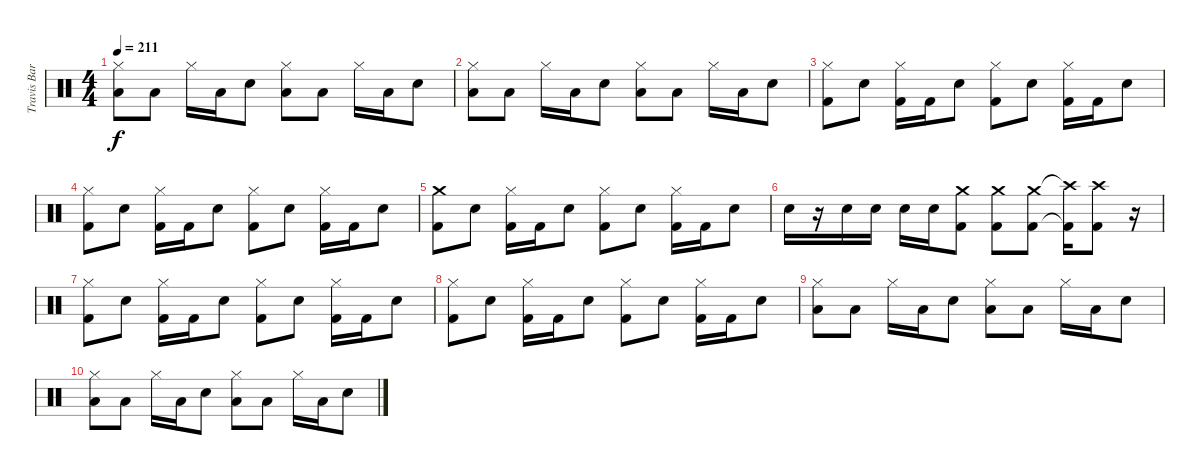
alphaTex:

\track ("Travis Barker (Drums)" "Travis Bar") {instrument percussion}
\staff {score}
\articulation defaults
\ts (4 4)
\tempo 211
\clef neutral
\ks c
("Low Floor Tom (hit)" "Hi-Hat (closed)").8{dy f} "Low Floor Tom (hit)".8 "Hi-Hat (closed)".16 "Low Floor Tom (hit)".16 "Electric Snare (hit)".8 ("Low Floor Tom (hit)" "Hi-Hat (closed)").8 "Low Floor Tom (hit)".8 "Hi-Hat (closed)".16 "Low Floor Tom (hit)".16 "Electric Snare (hit)".8 |
("Low Floor Tom (hit)" "Hi-Hat (closed)").8 "Low Floor Tom (hit)".8 "Hi-Hat (closed)".16 "Low Floor Tom (hit)".16 "Electric Snare (hit)".8 ("Low Floor Tom (hit)" "Hi-Hat (closed)").8 "Low Floor Tom (hit)".8 "Hi-Hat (closed)".16 "Low Floor Tom (hit)".16 "Electric Snare (hit)".8 |
("Kick (hit) 2" "Hi-Hat (closed)").8 "Electric Snare (hit)".8 ("Kick (hit) 2" "Hi-Hat (closed)").16 "Kick (hit) 2".16 "Electric Snare (hit)".8 ("Kick (hit) 2" "Hi-Hat (closed)").8 "Electric Snare (hit)".8 ("Kick (hit) 2" "Hi-Hat (closed)").16 "Kick (hit) 2".16 "Electric Snare (hit)".8 |
("Kick (hit) 2" "Hi-Hat (closed)").8 "Electric Snare (hit)".8 ("Kick (hit) 2" "Hi-Hat (closed)").16 "Kick (hit) 2".16 "Electric Snare (hit)".8 ("Kick (hit) 2" "Hi-Hat (closed)").8 "Electric Snare (hit)".8 ("Kick (hit) 2" "Hi-Hat (closed)").16 "Kick (hit) 2".16 "Electric Snare (hit)".8 |
("Kick (hit) 2" "Crash medium (hit)").8 "Electric Snare (hit)".8 ("Kick (hit) 2" "Hi-Hat (closed)").16 "Kick (hit) 2".16 "Electric Snare (hit)".8 ("Kick (hit) 2" "Hi-Hat (closed)").8 "Electric Snare (hit)".8 ("Kick (hit) 2" "Hi-Hat (closed)").16 "Kick (hit) 2".16 "Electric Snare (hit)".8 |
"Electric Snare (hit)".16 r.16 "Electric Snare (hit)".16 "Electric Snare (hit)".16 "Electric Snare (hit)".16 "Electric Snare (hit)".16 ("Crash medium (hit)" "Kick (hit) 2").8 ("Crash medium (hit)" "Kick (hit) 2").8 ("Crash medium (hit)" "Kick (hit) 2").8 ("Crash high (hit)"{t} "Kick (hit) 2"{t}).16 ("Crash high (hit)" "Kick (hit) 2").8 r.16 |
("Kick (hit) 2" "Hi-Hat (closed)").8 "Electric Snare (hit)".8 ("Kick (hit) 2" "Hi-Hat (closed)").16 "Kick (hit) 2".16 "Electric Snare (hit)".8 ("Kick (hit) 2" "Hi-Hat (closed)").8 "Electric Snare (hit)".8 ("Kick (hit) 2" "Hi-Hat (closed)").16 "Kick (hit) 2".16 "Electric Snare (hit)".8 |
("Kick (hit) 2" "Hi-Hat (closed)").8 "Electric Snare (hit)".8 ("Kick (hit) 2" "Hi-Hat (closed)").16 "Kick (hit) 2".16 "Electric Snare (hit)".8 ("Kick (hit) 2" "Hi-Hat (closed)").8 "Electric Snare (hit)".8 ("Kick (hit) 2" "Hi-Hat (closed)").16 "Kick (hit) 2".16 "Electric Snare (hit)".8 |
("Low Floor Tom (hit)" "Hi-Hat (closed)").8 "Low Floor Tom (hit)".8 "Hi-Hat (closed)".16 "Low Floor Tom (hit)".16 "Electric Snare (hit)".8 ("Low Floor Tom (hit)" "Hi-Hat (closed)").8 "Low Floor Tom (hit)".8 "Hi-Hat (closed)".16 "Low Floor Tom (hit)".16 "Electric Snare (hit)".8 |
("Low Floor Tom (hit)" "Hi-Hat (closed)").8 "Low Floor Tom (hit)".8 "Hi-Hat (closed)".16 "Low Floor Tom (hit)".16 "Electric Snare (hit)".8 ("Low Floor Tom (hit)" "Hi-Hat (closed)").8 "Low Floor Tom (hit)".8 "Hi-Hat (closed)".16 "Low Floor Tom (hit)".16 "Electric Snare (hit)".8
